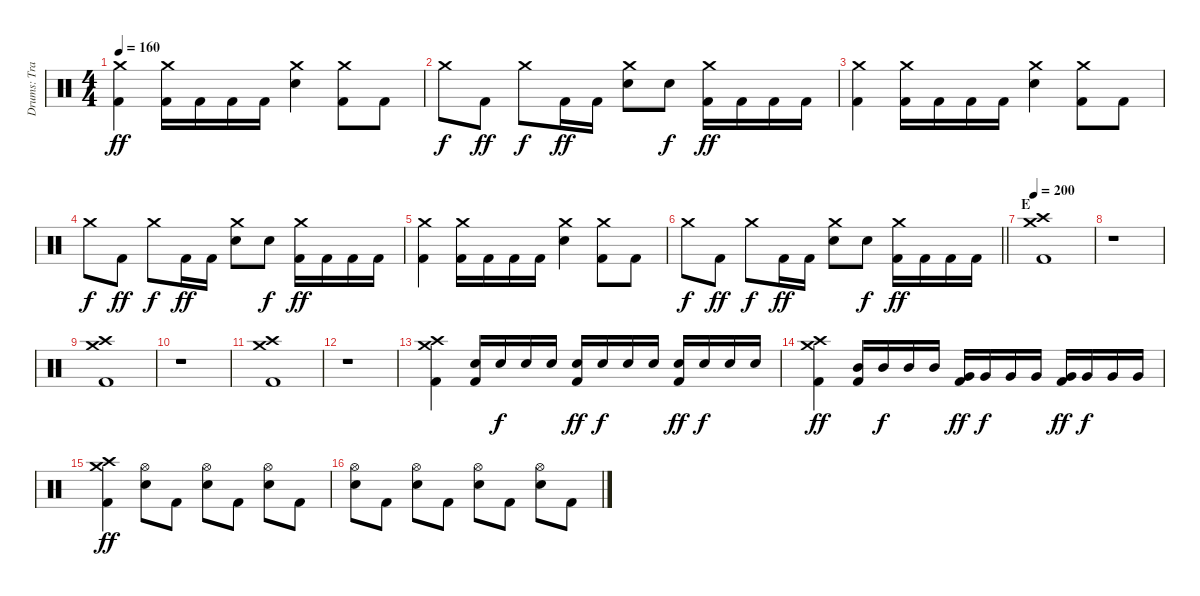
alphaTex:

\track ("Drums: Travis Clarke" "Drums: Tra") {instrument percussion}
\staff {score}
\articulation defaults
\ts (4 4)
\tempo 160
\clef neutral
\ks c
("Kick (hit) 2" "Crash medium (hit)").4{dy ff} ("Kick (hit) 2" "Crash medium (hit)").16 "Kick (hit) 2".16 "Kick (hit) 2".16 "Kick (hit) 2".16 ("Snare (hit) 2" "Crash medium (hit)").4 ("Kick (hit) 2" "Crash medium (hit)").8 "Kick (hit) 2".8 |
"Crash medium (hit)".8{dy f} "Kick (hit) 2".8{dy ff} "Crash medium (hit)".8{dy f} "Kick (hit) 2".16{dy ff} "Kick (hit) 2".16 ("Snare (hit) 2" "Crash medium (hit)").8 "Snare (hit) 2".8{dy f} ("Kick (hit) 2" "Crash medium (hit)").16{dy ff} "Kick (hit) 2".16 "Kick (hit) 2".16 "Kick (hit) 2".16 |
("Kick (hit) 2" "Crash medium (hit)").4 ("Kick (hit) 2" "Crash medium (hit)").16 "Kick (hit) 2".16 "Kick (hit) 2".16 "Kick (hit) 2".16 ("Snare (hit) 2" "Crash medium (hit)").4 ("Kick (hit) 2" "Crash medium (hit)").8 "Kick (hit) 2".8 |
"Crash medium (hit)".8{dy f} "Kick (hit) 2".8{dy ff} "Crash medium (hit)".8{dy f} "Kick (hit) 2".16{dy ff} "Kick (hit) 2".16 ("Snare (hit) 2" "Crash medium (hit)").8 "Snare (hit) 2".8{dy f} ("Kick (hit) 2" "Crash medium (hit)").16{dy ff} "Kick (hit) 2".16 "Kick (hit) 2".16 "Kick (hit) 2".16 |
("Kick (hit) 2" "Crash medium (hit)").4 ("Kick (hit) 2" "Crash medium (hit)").16 "Kick (hit) 2".16 "Kick (hit) 2".16 "Kick (hit) 2".16 ("Snare (hit) 2" "Crash medium (hit)").4 ("Kick (hit) 2" "Crash medium (hit)").8 "Kick (hit) 2".8 |
\barLineRight lightlight "Crash medium (hit)".8{dy f} "Kick (hit) 2".8{dy ff} "Crash medium (hit)".8{dy f} "Kick (hit) 2".16{dy ff} "Kick (hit) 2".16
("Snare (hit) 2" "Crash medium (hit)").8 "Snare (hit) 2".8{dy f} ("Kick (hit) 2" "Crash medium (hit)").16{dy ff} "Kick (hit) 2".16 "Kick (hit) 2".16 "Kick (hit) 2".16 |
\section ("" "E")
\tempo 200
("Kick (hit) 2" "Crash high (hit)" "Crash medium (hit)").1 |
r.1 |
("Kick (hit) 2" "Crash high (hit)" "Crash medium (hit)").1 |
r.1 |
("Kick (hit) 2" "Crash high (hit)" "Crash medium (hit)").1 |
r.1 |
("Kick (hit) 2" "Crash high (hit)" "Crash medium (hit)").4 ("Kick (hit) 2" "Snare (hit) 2").16 "Snare (hit) 2".16{dy f} "Snare (hit) 2".16 "Snare (hit) 2".16 ("Kick (hit) 2" "Snare (hit) 2").16{dy ff} "Snare (hit) 2".16{dy f} "Snare (hit) 2".16 "Snare (hit) 2".16 ("Kick (hit) 2" "Snare (hit) 2").16{dy ff} "Snare (hit) 2".16{dy f} "Snare (hit) 2".16 "Snare (hit) 2".16 |
("Kick (hit) 2" "Crash high (hit)" "Crash medium (hit)").4{dy ff} ("Kick (hit) 2" "Mid Tom (hit)").16 "Mid Tom (hit)".16{dy f} "Mid Tom (hit)".16 "Mid Tom (hit)".16 ("Kick (hit) 2" "Very Low Tom (hit)").16{dy ff} "Very Low Tom (hit)".16{dy f} "Very Low Tom (hit)".16 "Very Low Tom (hit)".16 ("Kick (hit) 2" "Very Low Tom (hit)").16{dy ff} "Very Low Tom (hit)".16{dy f} "Very Low Tom (hit)".16 "Very Low Tom (hit)".16 |
("Kick (hit) 2" "Crash high (hit)" "Crash medium (hit)").4{dy ff} ("Snare (hit) 2" "Hi-Hat (open)").8 "Kick (hit) 2".8 ("Snare (hit) 2" "Hi-Hat (open)").8 "Kick (hit) 2".8 ("Snare (hit) 2" "Hi-Hat (open)").8 "Kick (hit) 2".8 |
("Snare (hit) 2" "Hi-Hat (open)").8 "Kick (hit) 2".8 ("Snare (hit) 2" "Hi-Hat (open)").8 "Kick (hit) 2".8 ("Snare (hit) 2" "Hi-Hat (open)").8 "Kick (hit) 2".8 ("Snare (hit) 2" "Hi-Hat (open)").8 "Kick (hit) 2".8
